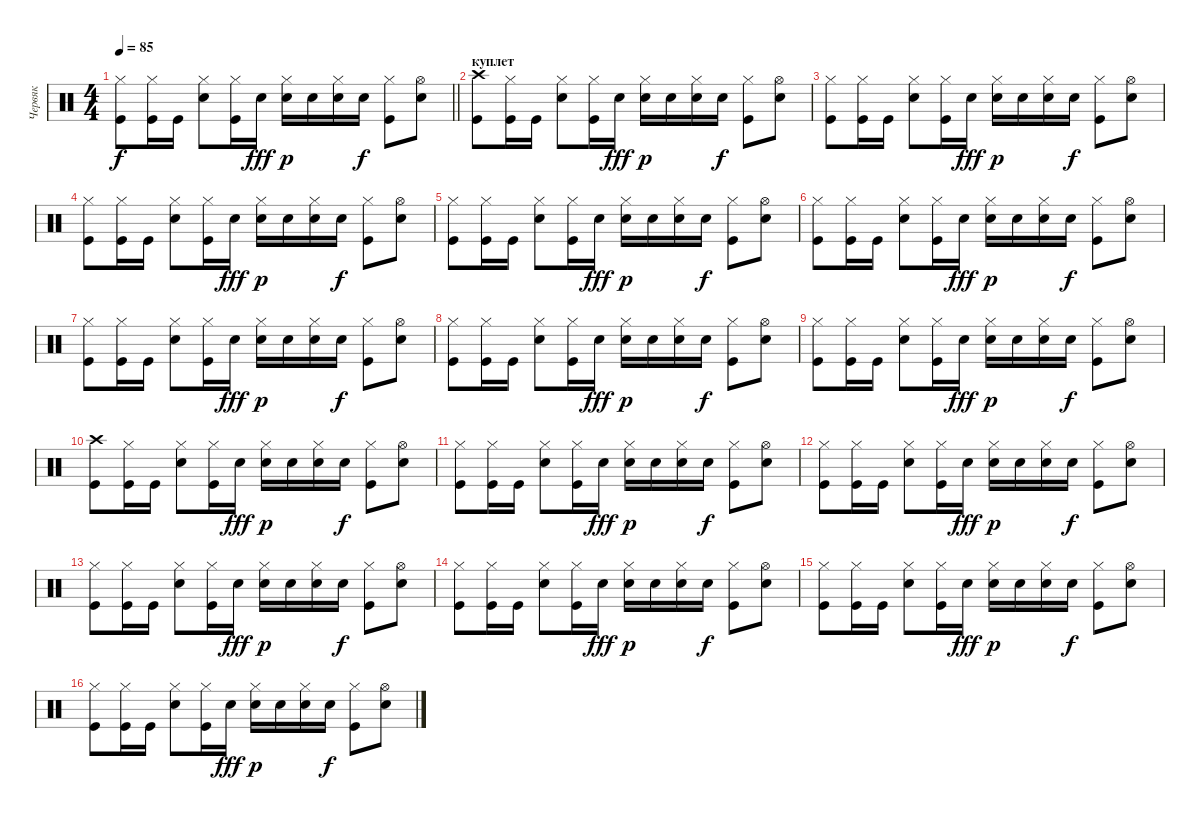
\track ("Червяк" "Червяк") {instrument percussion}
\staff {score}
\articulation defaults
\ts (4 4)
\tempo 85
\clef neutral
\barLineRight lightlight
\ks c
("Hi-Hat (closed)" "Kick (hit)").8{dy f} ("Hi-Hat (closed)" "Kick (hit)").16 "Kick (hit)".16 ("Hi-Hat (closed)" "Electric Snare (hit)").8 ("Hi-Hat (closed)" "Kick (hit)").16 "Snare (hit) 2".16{dy fff} ("Hi-Hat (closed)" "Snare (hit) 2").16{dy p} "Snare (hit) 2".16 ("Hi-Hat (closed)" "Snare (hit) 2").16 "Snare (hit) 2".16{dy f} ("Hi-Hat (closed)" "Kick (hit)").8 ("Hi-Hat (open)" "Electric Snare (hit)").8 |
\section ("" "куплет")
("Crash high (hit)" "Kick (hit)").8 ("Hi-Hat (closed)" "Kick (hit)").16 "Kick (hit)".16 ("Hi-Hat (closed)" "Electric Snare (hit)").8 ("Hi-Hat (closed)" "Kick (hit)").16 "Snare (hit) 2".16{dy fff} ("Hi-Hat (closed)" "Snare (hit) 2").16{dy p} "Snare (hit) 2".16 ("Hi-Hat (closed)" "Snare (hit) 2").16 "Snare (hit) 2".16{dy f} ("Hi-Hat (closed)" "Kick (hit)").8 ("Hi-Hat (open)" "Electric Snare (hit)").8 |
("Hi-Hat (closed)" "Kick (hit)").8 ("Hi-Hat (closed)" "Kick (hit)").16 "Kick (hit)".16 ("Hi-Hat (closed)" "Electric Snare (hit)").8 ("Hi-Hat (closed)" "Kick (hit)").16 "Snare (hit) 2".16{dy fff} ("Hi-Hat (closed)" "Snare (hit) 2").16{dy p} "Snare (hit) 2".16 ("Hi-Hat (closed)" "Snare (hit) 2").16 "Snare (hit) 2".16{dy f} ("Hi-Hat (closed)" "Kick (hit)").8 ("Hi-Hat (open)" "Electric Snare (hit)").8 |
("Hi-Hat (closed)" "Kick (hit)").8 ("Hi-Hat (closed)" "Kick (hit)").16 "Kick (hit)".16 ("Hi-Hat (closed)" "Electric Snare (hit)").8 ("Hi-Hat (closed)" "Kick (hit)").16 "Snare (hit) 2".16{dy fff} ("Hi-Hat (closed)" "Snare (hit) 2").16{dy p} "Snare (hit) 2".16 ("Hi-Hat (closed)" "Snare (hit) 2").16 "Snare (hit) 2".16{dy f} ("Hi-Hat (closed)" "Kick (hit)").8 ("Hi-Hat (open)" "Electric Snare (hit)").8 |
("Hi-Hat (closed)" "Kick (hit)").8 ("Hi-Hat (closed)" "Kick (hit)").16 "Kick (hit)".16 ("Hi-Hat (closed)" "Electric Snare (hit)").8 ("Hi-Hat (closed)" "Kick (hit)").16 "Snare (hit) 2".16{dy fff} ("Hi-Hat (closed)" "Snare (hit) 2").16{dy p} "Snare (hit) 2".16 ("Hi-Hat (closed)" "Snare (hit) 2").16 "Snare (hit) 2".16{dy f} ("Hi-Hat (closed)" "Kick (hit)").8 ("Hi-Hat (open)" "Electric Snare (hit)").8 |
("Hi-Hat (closed)" "Kick (hit)").8 ("Hi-Hat (closed)" "Kick (hit)").16 "Kick (hit)".16 ("Hi-Hat (closed)" "Electric Snare (hit)").8 ("Hi-Hat (closed)" "Kick (hit)").16 "Snare (hit) 2".16{dy fff} ("Hi-Hat (closed)" "Snare (hit) 2").16{dy p} "Snare (hit) 2".16 ("Hi-Hat (closed)" "Snare (hit) 2").16 "Snare (hit) 2".16{dy f} ("Hi-Hat (closed)" "Kick (hit)").8 ("Hi-Hat (open)" "Electric Snare (hit)").8 |
("Hi-Hat (closed)" "Kick (hit)").8 ("Hi-Hat (closed)" "Kick (hit)").16 "Kick (hit)".16 ("Hi-Hat (closed)" "Electric Snare (hit)").8 ("Hi-Hat (closed)" "Kick (hit)").16 "Snare (hit) 2".16{dy fff} ("Hi-Hat (closed)" "Snare (hit) 2").16{dy p} "Snare (hit) 2".16 ("Hi-Hat (closed)" "Snare (hit) 2").16 "Snare (hit) 2".16{dy f} ("Hi-Hat (closed)" "Kick (hit)").8 ("Hi-Hat (open)" "Electric Snare (hit)").8 |
("Hi-Hat (closed)" "Kick (hit)").8 ("Hi-Hat (closed)" "Kick (hit)").16 "Kick (hit)".16 ("Hi-Hat (closed)" "Electric Snare (hit)").8 ("Hi-Hat (closed)" "Kick (hit)").16 "Snare (hit) 2".16{dy fff} ("Hi-Hat (closed)" "Snare (hit) 2").16{dy p} "Snare (hit) 2".16 ("Hi-Hat (closed)" "Snare (hit) 2").16 "Snare (hit) 2".16{dy f} ("Hi-Hat (closed)" "Kick (hit)").8 ("Hi-Hat (open)" "Electric Snare (hit)").8 |
("Hi-Hat (closed)" "Kick (hit)").8 ("Hi-Hat (closed)" "Kick (hit)").16 "Kick (hit)".16 ("Hi-Hat (closed)" "Electric Snare (hit)").8 ("Hi-Hat (closed)" "Kick (hit)").16 "Snare (hit) 2".16{dy fff} ("Hi-Hat (closed)" "Snare (hit) 2").16{dy p} "Snare (hit) 2".16 ("Hi-Hat (closed)" "Snare (hit) 2").16 "Snare (hit) 2".16{dy f} ("Hi-Hat (closed)" "Kick (hit)").8 ("Hi-Hat (open)" "Electric Snare (hit)").8 |
("Crash high (hit)" "Kick (hit)").8 ("Hi-Hat (closed)" "Kick (hit)").16 "Kick (hit)".16 ("Hi-Hat (closed)" "Electric Snare (hit)").8 ("Hi-Hat (closed)" "Kick (hit)").16 "Snare (hit) 2".16{dy fff} ("Hi-Hat (closed)" "Snare (hit) 2").16{dy p} "Snare (hit) 2".16 ("Hi-Hat (closed)" "Snare (hit) 2").16 "Snare (hit) 2".16{dy f} ("Hi-Hat (closed)" "Kick (hit)").8 ("Hi-Hat (open)" "Electric Snare (hit)").8 |
("Hi-Hat (closed)" "Kick (hit)").8 ("Hi-Hat (closed)" "Kick (hit)").16 "Kick (hit)".16 ("Hi-Hat (closed)" "Electric Snare (hit)").8 ("Hi-Hat (closed)" "Kick (hit)").16 "Snare (hit) 2".16{dy fff} ("Hi-Hat (closed)" "Snare (hit) 2").16{dy p} "Snare (hit) 2".16 ("Hi-Hat (closed)" "Snare (hit) 2").16 "Snare (hit) 2".16{dy f} ("Hi-Hat (closed)" "Kick (hit)").8 ("Hi-Hat (open)" "Electric Snare (hit)").8 |
("Hi-Hat (closed)" "Kick (hit)").8 ("Hi-Hat (closed)" "Kick (hit)").16 "Kick (hit)".16 ("Hi-Hat (closed)" "Electric Snare (hit)").8 ("Hi-Hat (closed)" "Kick (hit)").16 "Snare (hit) 2".16{dy fff} ("Hi-Hat (closed)" "Snare (hit) 2").16{dy p} "Snare (hit) 2".16 ("Hi-Hat (closed)" "Snare (hit) 2").16 "Snare (hit) 2".16{dy f} ("Hi-Hat (closed)" "Kick (hit)").8 ("Hi-Hat (open)" "Electric Snare (hit)").8 |
("Hi-Hat (closed)" "Kick (hit)").8 ("Hi-Hat (closed)" "Kick (hit)").16 "Kick (hit)".16 ("Hi-Hat (closed)" "Electric Snare (hit)").8 ("Hi-Hat (closed)" "Kick (hit)").16 "Snare (hit) 2".16{dy fff} ("Hi-Hat (closed)" "Snare (hit) 2").16{dy p} "Snare (hit) 2".16 ("Hi-Hat (closed)" "Snare (hit) 2").16 "Snare (hit) 2".16{dy f} ("Hi-Hat (closed)" "Kick (hit)").8 ("Hi-Hat (open)" "Electric Snare (hit)").8 |
("Hi-Hat (closed)" "Kick (hit)").8 ("Hi-Hat (closed)" "Kick (hit)").16 "Kick (hit)".16 ("Hi-Hat (closed)" "Electric Snare (hit)").8 ("Hi-Hat (closed)" "Kick (hit)").16 "Snare (hit) 2".16{dy fff} ("Hi-Hat (closed)" "Snare (hit) 2").16{dy p} "Snare (hit) 2".16 ("Hi-Hat (closed)" "Snare (hit) 2").16 "Snare (hit) 2".16{dy f} ("Hi-Hat (closed)" "Kick (hit)").8 ("Hi-Hat (open)" "Electric Snare (hit)").8 |
("Hi-Hat (closed)" "Kick (hit)").8 ("Hi-Hat (closed)" "Kick (hit)").16 "Kick (hit)".16 ("Hi-Hat (closed)" "Electric Snare (hit)").8 ("Hi-Hat (closed)" "Kick (hit)").16 "Snare (hit) 2".16{dy fff} ("Hi-Hat (closed)" "Snare (hit) 2").16{dy p} "Snare (hit) 2".16 ("Hi-Hat (closed)" "Snare (hit) 2").16 "Snare (hit) 2".16{dy f} ("Hi-Hat (closed)" "Kick (hit)").8 ("Hi-Hat (open)" "Electric Snare (hit)").8 |
("Hi-Hat (closed)" "Kick (hit)").8 ("Hi-Hat (closed)" "Kick (hit)").16 "Kick (hit)".16 ("Hi-Hat (closed)" "Electric Snare (hit)").8 ("Hi-Hat (closed)" "Kick (hit)").16 "Snare (hit) 2".16{dy fff} ("Hi-Hat (closed)" "Snare (hit) 2").16{dy p} "Snare (hit) 2".16 ("Hi-Hat (closed)" "Snare (hit) 2").16 "Snare (hit) 2".16{dy f} ("Hi-Hat (closed)" "Kick (hit)").8 ("Hi-Hat (open)" "Electric Snare (hit)").8
